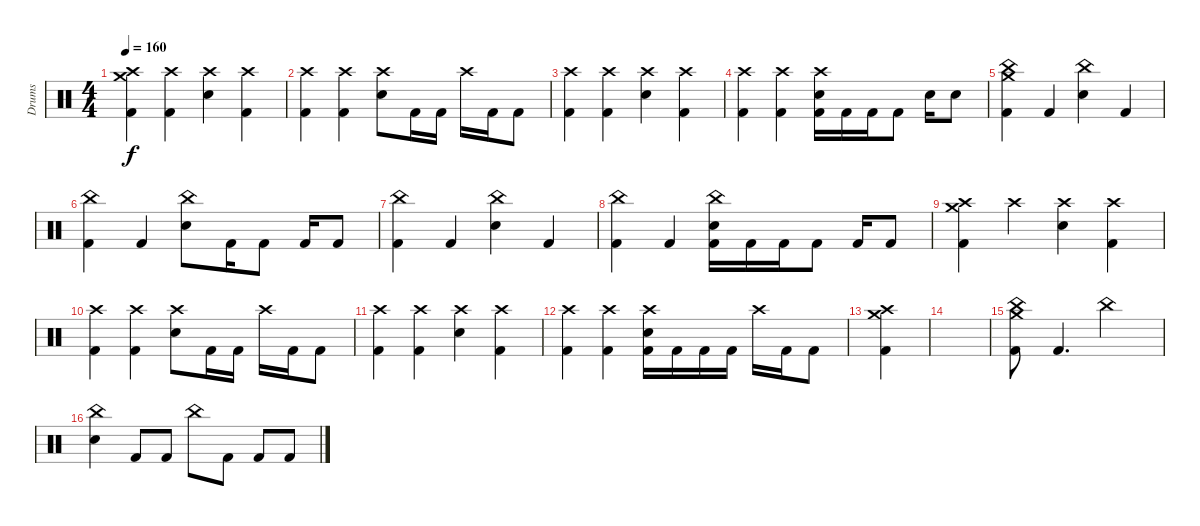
\track ("Drums" "Drums") {instrument percussion}
\staff {score}
\articulation defaults
\ts (4 4)
\tempo 160
\clef neutral
\ks c
("Crash medium (hit)" "Crash high (hit)" "Kick (hit) 2").4{dy f} ("Crash high (hit)" "Kick (hit) 2").4 ("Crash high (hit)" "Electric Snare (hit)").4 ("Crash high (hit)" "Kick (hit) 2").4 |
("Crash high (hit)" "Kick (hit) 2").4 ("Crash high (hit)" "Kick (hit) 2").4 ("Crash high (hit)" "Electric Snare (hit)").8 "Kick (hit) 2".16 "Kick (hit) 2".16 "Crash high (hit)".16 "Kick (hit) 2".16 "Kick (hit) 2".8 |
("Crash high (hit)" "Kick (hit) 2").4 ("Crash high (hit)" "Kick (hit) 2").4 ("Crash high (hit)" "Electric Snare (hit)").4 ("Crash high (hit)" "Kick (hit) 2").4 |
("Crash high (hit)" "Kick (hit) 2").4 ("Crash high (hit)" "Kick (hit) 2").4 ("Crash high (hit)" "Electric Snare (hit)" "Kick (hit) 2").16 "Kick (hit) 2".16 "Kick (hit) 2".16 "Kick (hit) 2".8 "Electric Snare (hit)".16 "Electric Snare (hit)".8 |
("Crash medium (hit)" "China (hit)" "Kick (hit) 2").4 "Kick (hit) 2".4 ("China (hit)" "Electric Snare (hit)").4 "Kick (hit) 2".4 |
("China (hit)" "Kick (hit) 2").4 "Kick (hit) 2".4 ("China (hit)" "Electric Snare (hit)").8 "Kick (hit) 2".16 "Kick (hit) 2".8 "Kick (hit) 2".16 "Kick (hit) 2".8 |
("China (hit)" "Kick (hit) 2").4 "Kick (hit) 2".4 ("China (hit)" "Electric Snare (hit)").4 "Kick (hit) 2".4 |
("China (hit)" "Kick (hit) 2").4 "Kick (hit) 2".4 ("China (hit)" "Electric Snare (hit)" "Kick (hit) 2").16 "Kick (hit) 2".16 "Kick (hit) 2".16 "Kick (hit) 2".8 "Kick (hit) 2".16 "Kick (hit) 2".8 |
("Crash medium (hit)" "Crash high (hit)" "Kick (hit) 2").4 "Crash high (hit)".4 ("Crash high (hit)" "Electric Snare (hit)").4 ("Crash high (hit)" "Kick (hit) 2").4 |
("Crash high (hit)" "Kick (hit) 2").4 ("Crash high (hit)" "Kick (hit) 2").4 ("Crash high (hit)" "Electric Snare (hit)").8 "Kick (hit) 2".16 "Kick (hit) 2".16 "Crash high (hit)".16 "Kick (hit) 2".16 "Kick (hit) 2".8 |
("Crash high (hit)" "Kick (hit) 2").4 ("Crash high (hit)" "Kick (hit) 2").4 ("Crash high (hit)" "Electric Snare (hit)").4 ("Crash high (hit)" "Kick (hit) 2").4 |
("Crash high (hit)" "Kick (hit) 2").4 ("Crash high (hit)" "Kick (hit) 2").4 ("Crash high (hit)" "Electric Snare (hit)" "Kick (hit) 2").16 "Kick (hit) 2".16 "Kick (hit) 2".16 "Kick (hit) 2".16 "Crash high (hit)".16 "Kick (hit) 2".16 "Kick (hit) 2".8 |
("Crash medium (hit)" "Crash high (hit)" "Kick (hit) 2").4 |
|
("Crash medium (hit)" "China (hit)" "Kick (hit) 2").8 "Kick (hit) 2".4{d} "China (hit)".2 |
("China (hit)" "Electric Snare (hit)").4 "Kick (hit) 2".8 "Kick (hit) 2".8 "China (hit)".8 "Kick (hit) 2".8 "Kick (hit) 2".8 "Kick (hit) 2".8
